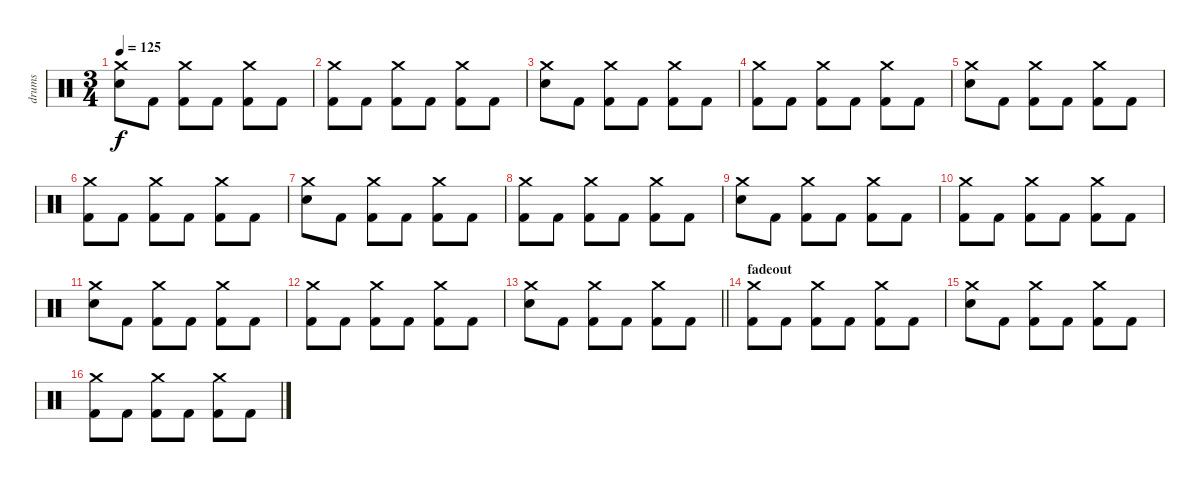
\track ("drums" "drums") {instrument percussion}
\staff {score}
\articulation defaults
\ts (3 4)
\tempo 125
\clef neutral
\ks c
("Crash medium (hit)" "Electric Snare (hit)").8{dy f} "Kick (hit) 2".8 ("Crash medium (hit)" "Kick (hit) 2").8 "Kick (hit) 2".8 ("Crash medium (hit)" "Kick (hit) 2").8 "Kick (hit) 2".8 |
("Crash medium (hit)" "Kick (hit) 2").8 "Kick (hit) 2".8 ("Crash medium (hit)" "Kick (hit) 2").8 "Kick (hit) 2".8 ("Crash medium (hit)" "Kick (hit) 2").8 "Kick (hit) 2".8 |
("Crash medium (hit)" "Electric Snare (hit)").8 "Kick (hit) 2".8 ("Crash medium (hit)" "Kick (hit) 2").8 "Kick (hit) 2".8 ("Crash medium (hit)" "Kick (hit) 2").8 "Kick (hit) 2".8 |
("Crash medium (hit)" "Kick (hit) 2").8 "Kick (hit) 2".8 ("Crash medium (hit)" "Kick (hit) 2").8 "Kick (hit) 2".8 ("Crash medium (hit)" "Kick (hit) 2").8 "Kick (hit) 2".8 |
("Crash medium (hit)" "Electric Snare (hit)").8 "Kick (hit) 2".8 ("Crash medium (hit)" "Kick (hit) 2").8 "Kick (hit) 2".8 ("Crash medium (hit)" "Kick (hit) 2").8 "Kick (hit) 2".8 |
("Crash medium (hit)" "Kick (hit) 2").8 "Kick (hit) 2".8 ("Crash medium (hit)" "Kick (hit) 2").8 "Kick (hit) 2".8 ("Crash medium (hit)" "Kick (hit) 2").8 "Kick (hit) 2".8 |
("Crash medium (hit)" "Electric Snare (hit)").8 "Kick (hit) 2".8 ("Crash medium (hit)" "Kick (hit) 2").8 "Kick (hit) 2".8 ("Crash medium (hit)" "Kick (hit) 2").8 "Kick (hit) 2".8 |
("Crash medium (hit)" "Kick (hit) 2").8 "Kick (hit) 2".8 ("Crash medium (hit)" "Kick (hit) 2").8 "Kick (hit) 2".8 ("Crash medium (hit)" "Kick (hit) 2").8 "Kick (hit) 2".8 |
("Crash medium (hit)" "Electric Snare (hit)").8 "Kick (hit) 2".8 ("Crash medium (hit)" "Kick (hit) 2").8 "Kick (hit) 2".8 ("Crash medium (hit)" "Kick (hit) 2").8 "Kick (hit) 2".8 |
("Crash medium (hit)" "Kick (hit) 2").8 "Kick (hit) 2".8 ("Crash medium (hit)" "Kick (hit) 2").8 "Kick (hit) 2".8 ("Crash medium (hit)" "Kick (hit) 2").8 "Kick (hit) 2".8 |
("Crash medium (hit)" "Electric Snare (hit)").8 "Kick (hit) 2".8 ("Crash medium (hit)" "Kick (hit) 2").8 "Kick (hit) 2".8 ("Crash medium (hit)" "Kick (hit) 2").8 "Kick (hit) 2".8 |
("Crash medium (hit)" "Kick (hit) 2").8 "Kick (hit) 2".8 ("Crash medium (hit)" "Kick (hit) 2").8 "Kick (hit) 2".8 ("Crash medium (hit)" "Kick (hit) 2").8 "Kick (hit) 2".8 |
\barLineRight lightlight
("Crash medium (hit)" "Electric Snare (hit)").8 "Kick (hit) 2".8 ("Crash medium (hit)" "Kick (hit) 2").8 "Kick (hit) 2".8 ("Crash medium (hit)" "Kick (hit) 2").8 "Kick (hit) 2".8 |
\section ("" "fadeout")
("Crash medium (hit)" "Kick (hit) 2").8{volume 11} "Kick (hit) 2".8 ("Crash medium (hit)" "Kick (hit) 2").8 "Kick (hit) 2".8 ("Crash medium (hit)" "Kick (hit) 2").8 "Kick (hit) 2".8 |
("Crash medium (hit)" "Electric Snare (hit)").8 "Kick (hit) 2".8 ("Crash medium (hit)" "Kick (hit) 2").8 "Kick (hit) 2".8 ("Crash medium (hit)" "Kick (hit) 2").8 "Kick (hit) 2".8 |
("Crash medium (hit)" "Kick (hit) 2").8 "Kick (hit) 2".8 ("Crash medium (hit)" "Kick (hit) 2").8 "Kick (hit) 2".8 ("Crash medium (hit)" "Kick (hit) 2").8 "Kick (hit) 2".8
